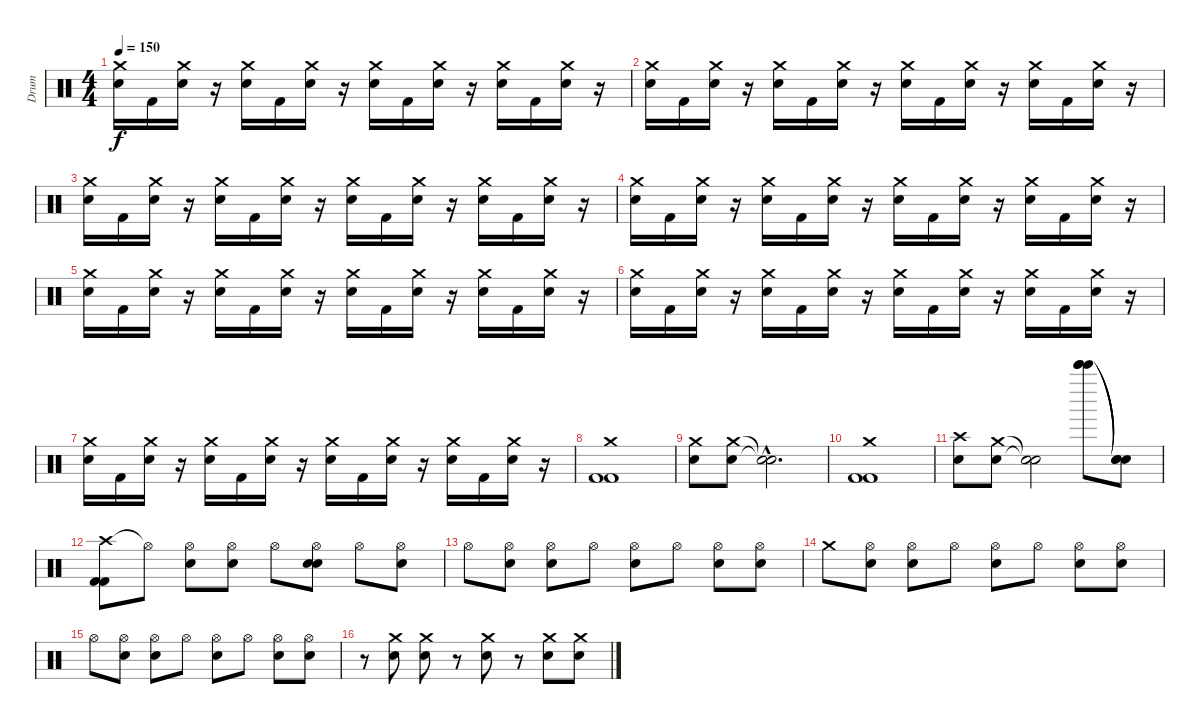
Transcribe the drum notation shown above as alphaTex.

\track ("Drum" "Drum") {instrument percussion}
\staff {score}
\articulation defaults
\ts (4 4)
\tempo 150
\clef neutral
\ks c
("Electric Snare (hit)" "Crash medium (hit)").16{dy f} "Kick (hit) 2".16 ("Electric Snare (hit)" "Crash medium (hit)").16 r.16 ("Electric Snare (hit)" "Crash medium (hit)").16 "Kick (hit) 2".16 ("Electric Snare (hit)" "Crash medium (hit)").16 r.16 ("Electric Snare (hit)" "Crash medium (hit)").16 "Kick (hit) 2".16 ("Electric Snare (hit)" "Crash medium (hit)").16 r.16 ("Electric Snare (hit)" "Crash medium (hit)").16 "Kick (hit) 2".16 ("Electric Snare (hit)" "Crash medium (hit)").16 r.16 |
("Electric Snare (hit)" "Crash medium (hit)").16 "Kick (hit) 2".16 ("Electric Snare (hit)" "Crash medium (hit)").16 r.16 ("Electric Snare (hit)" "Crash medium (hit)").16 "Kick (hit) 2".16 ("Electric Snare (hit)" "Crash medium (hit)").16 r.16 ("Electric Snare (hit)" "Crash medium (hit)").16 "Kick (hit) 2".16 ("Electric Snare (hit)" "Crash medium (hit)").16 r.16 ("Electric Snare (hit)" "Crash medium (hit)").16 "Kick (hit) 2".16 ("Electric Snare (hit)" "Crash medium (hit)").16 r.16 |
("Electric Snare (hit)" "Crash medium (hit)").16 "Kick (hit) 2".16 ("Electric Snare (hit)" "Crash medium (hit)").16 r.16 ("Electric Snare (hit)" "Crash medium (hit)").16 "Kick (hit) 2".16 ("Electric Snare (hit)" "Crash medium (hit)").16 r.16 ("Electric Snare (hit)" "Crash medium (hit)").16 "Kick (hit) 2".16 ("Electric Snare (hit)" "Crash medium (hit)").16 r.16 ("Electric Snare (hit)" "Crash medium (hit)").16 "Kick (hit) 2".16 ("Electric Snare (hit)" "Crash medium (hit)").16 r.16 |
("Electric Snare (hit)" "Crash medium (hit)").16 "Kick (hit) 2".16 ("Electric Snare (hit)" "Crash medium (hit)").16 r.16 ("Electric Snare (hit)" "Crash medium (hit)").16 "Kick (hit) 2".16 ("Electric Snare (hit)" "Crash medium (hit)").16 r.16 ("Electric Snare (hit)" "Crash medium (hit)").16 "Kick (hit) 2".16 ("Electric Snare (hit)" "Crash medium (hit)").16 r.16 ("Electric Snare (hit)" "Crash medium (hit)").16 "Kick (hit) 2".16 ("Electric Snare (hit)" "Crash medium (hit)").16 r.16 |
("Electric Snare (hit)" "Crash medium (hit)").16 "Kick (hit) 2".16 ("Electric Snare (hit)" "Crash medium (hit)").16 r.16 ("Electric Snare (hit)" "Crash medium (hit)").16 "Kick (hit) 2".16 ("Electric Snare (hit)" "Crash medium (hit)").16 r.16 ("Electric Snare (hit)" "Crash medium (hit)").16 "Kick (hit) 2".16 ("Electric Snare (hit)" "Crash medium (hit)").16 r.16 ("Electric Snare (hit)" "Crash medium (hit)").16 "Kick (hit) 2".16 ("Electric Snare (hit)" "Crash medium (hit)").16 r.16 |
("Electric Snare (hit)" "Crash medium (hit)").16 "Kick (hit) 2".16 ("Electric Snare (hit)" "Crash medium (hit)").16 r.16 ("Electric Snare (hit)" "Crash medium (hit)").16 "Kick (hit) 2".16 ("Electric Snare (hit)" "Crash medium (hit)").16 r.16 ("Electric Snare (hit)" "Crash medium (hit)").16 "Kick (hit) 2".16 ("Electric Snare (hit)" "Crash medium (hit)").16 r.16 ("Electric Snare (hit)" "Crash medium (hit)").16 "Kick (hit) 2".16 ("Electric Snare (hit)" "Crash medium (hit)").16 r.16 |
("Electric Snare (hit)" "Crash medium (hit)").16 "Kick (hit) 2".16 ("Electric Snare (hit)" "Crash medium (hit)").16 r.16 ("Electric Snare (hit)" "Crash medium (hit)").16 "Kick (hit) 2".16 ("Electric Snare (hit)" "Crash medium (hit)").16 r.16 ("Electric Snare (hit)" "Crash medium (hit)").16 "Kick (hit) 2".16 ("Electric Snare (hit)" "Crash medium (hit)").16 r.16 ("Electric Snare (hit)" "Crash medium (hit)").16 "Kick (hit) 2".16 ("Electric Snare (hit)" "Crash medium (hit)").16 r.16 |
("Crash medium (hit)" "Kick (hit) 2" "Kick (hit) 2").1 |
("Crash medium (hit)" "Electric Snare (hit)").8 ("Crash medium (hit)" "Electric Snare (hit)").8 ("Snare (hit)"{hac t} "Snare (hit)"{hac t}).2{d} |
("Crash medium (hit)" "Kick (hit) 2" "Kick (hit) 2").1 |
("Crash high (hit)" "Electric Snare (hit)").8 ("Crash medium (hit)" "Electric Snare (hit)").8 ("Snare (hit)"{t} "Snare (hit)"{t}).2 ("Bell Tree (hit)" "Bell Tree (hit)" "Bell Tree (hit)").8 ("Snare (hit)"{t} "Snare (hit)"{t} "Snare (hit)"{t}).8 |
("Crash high (hit)" "Kick (hit) 2" "Kick (hit) 2").8 "Hi-Hat (open)"{t}.8 ("Hi-Hat (open)" "Electric Snare (hit)").8 ("Hi-Hat (open)" "Electric Snare (hit)").8 "Hi-Hat (open)".8 ("Hi-Hat (open)" "Snare (hit) 2" "Snare (hit) 2").8 "Hi-Hat (open)".8 ("Hi-Hat (open)" "Snare (hit) 2").8 |
"Hi-Hat (open)".8 ("Hi-Hat (open)" "Electric Snare (hit)").8 ("Hi-Hat (open)" "Electric Snare (hit)").8 "Hi-Hat (open)".8 ("Hi-Hat (open)" "Electric Snare (hit)").8 "Hi-Hat (open)".8 ("Hi-Hat (open)" "Electric Snare (hit)").8 ("Hi-Hat (open)" "Electric Snare (hit)").8 |
"Crash medium (hit)".8 ("Hi-Hat (open)" "Electric Snare (hit)").8 ("Hi-Hat (open)" "Electric Snare (hit)").8 "Hi-Hat (open)".8 ("Hi-Hat (open)" "Electric Snare (hit)").8 "Hi-Hat (open)".8 ("Hi-Hat (open)" "Electric Snare (hit)").8 ("Hi-Hat (open)" "Electric Snare (hit)").8 |
"Hi-Hat (open)".8 ("Hi-Hat (open)" "Electric Snare (hit)").8 ("Hi-Hat (open)" "Electric Snare (hit)").8 "Hi-Hat (open)".8 ("Hi-Hat (open)" "Electric Snare (hit)").8 "Hi-Hat (open)".8 ("Hi-Hat (open)" "Electric Snare (hit)").8 ("Hi-Hat (open)" "Electric Snare (hit)").8 |
r.8 ("Crash medium (hit)" "Electric Snare (hit)").8 ("Crash medium (hit)" "Electric Snare (hit)").8 r.8 ("Crash medium (hit)" "Electric Snare (hit)").8 r.8 ("Crash medium (hit)" "Electric Snare (hit)").8 ("Crash medium (hit)" "Electric Snare (hit)").8
